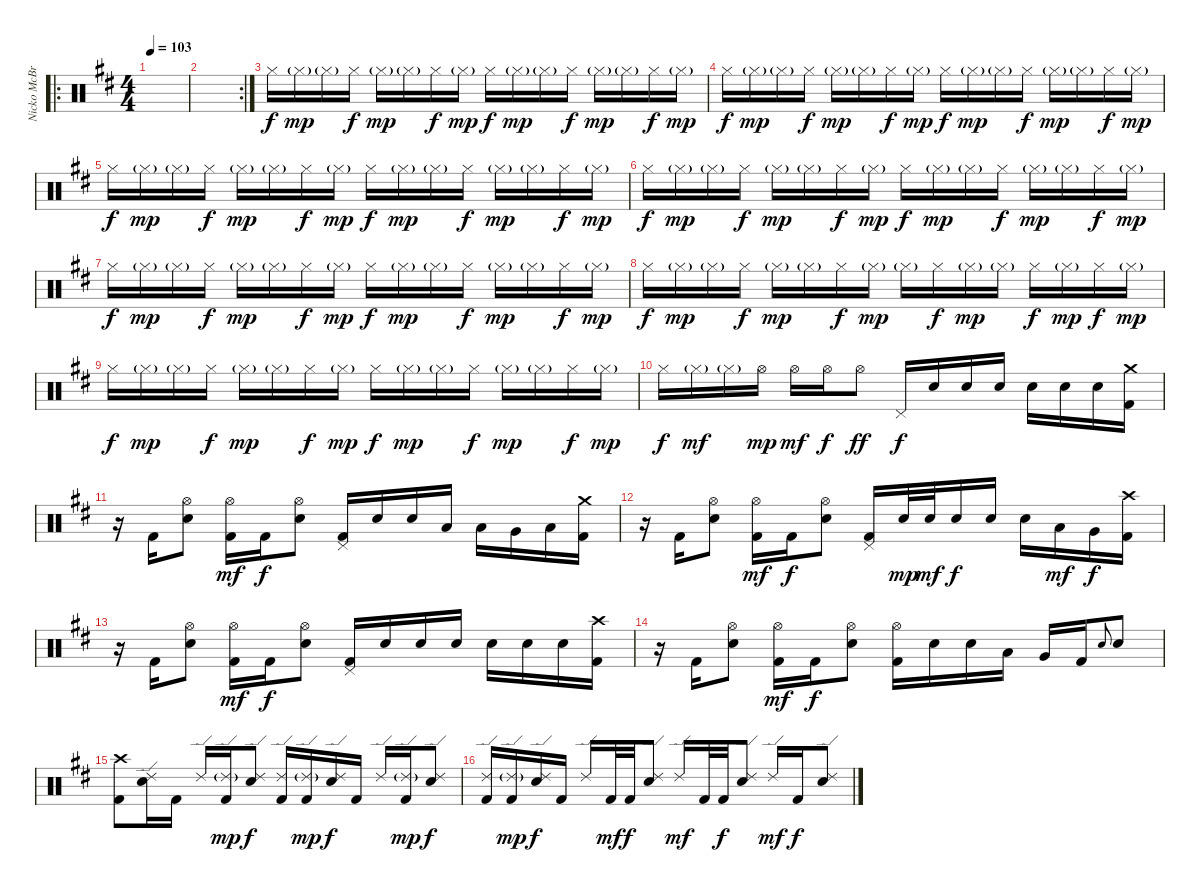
\track ("Nicko McBrain" "Nicko McBr") {instrument percussion}
\staff {score}
\articulation defaults
\ro
\ts (4 4)
\tempo 103
\clef neutral
\ks d
|
\rc 2
|
"Hi-Hat (closed)".16 "Hi-Hat (closed)"{g}.16{dy mp} "Hi-Hat (closed)"{g}.16 "Hi-Hat (closed)".16{dy f} "Hi-Hat (closed)"{g}.16{dy mp} "Hi-Hat (closed)"{g}.16 "Hi-Hat (closed)".16{dy f} "Hi-Hat (closed)"{g}.16{dy mp} "Hi-Hat (closed)".16{dy f} "Hi-Hat (closed)"{g}.16{dy mp} "Hi-Hat (closed)"{g}.16 "Hi-Hat (closed)".16{dy f} "Hi-Hat (closed)"{g}.16{dy mp} "Hi-Hat (closed)"{g}.16 "Hi-Hat (closed)".16{dy f} "Hi-Hat (closed)"{g}.16{dy mp} |
"Hi-Hat (closed)".16{dy f} "Hi-Hat (closed)"{g}.16{dy mp} "Hi-Hat (closed)"{g}.16 "Hi-Hat (closed)".16{dy f} "Hi-Hat (closed)"{g}.16{dy mp} "Hi-Hat (closed)"{g}.16 "Hi-Hat (closed)".16{dy f} "Hi-Hat (closed)"{g}.16{dy mp} "Hi-Hat (closed)".16{dy f} "Hi-Hat (closed)"{g}.16{dy mp} "Hi-Hat (closed)"{g}.16 "Hi-Hat (closed)".16{dy f} "Hi-Hat (closed)"{g}.16{dy mp} "Hi-Hat (closed)"{g}.16 "Hi-Hat (closed)".16{dy f} "Hi-Hat (closed)"{g}.16{dy mp} |
"Hi-Hat (closed)".16{dy f} "Hi-Hat (closed)"{g}.16{dy mp} "Hi-Hat (closed)"{g}.16 "Hi-Hat (closed)".16{dy f} "Hi-Hat (closed)"{g}.16{dy mp} "Hi-Hat (closed)"{g}.16 "Hi-Hat (closed)".16{dy f} "Hi-Hat (closed)"{g}.16{dy mp} "Hi-Hat (closed)".16{dy f} "Hi-Hat (closed)"{g}.16{dy mp} "Hi-Hat (closed)"{g}.16 "Hi-Hat (closed)".16{dy f} "Hi-Hat (closed)"{g}.16{dy mp} "Hi-Hat (closed)"{g}.16 "Hi-Hat (closed)".16{dy f} "Hi-Hat (closed)"{g}.16{dy mp} |
"Hi-Hat (closed)".16{dy f} "Hi-Hat (closed)"{g}.16{dy mp} "Hi-Hat (closed)"{g}.16 "Hi-Hat (closed)".16{dy f} "Hi-Hat (closed)"{g}.16{dy mp} "Hi-Hat (closed)"{g}.16 "Hi-Hat (closed)".16{dy f} "Hi-Hat (closed)"{g}.16{dy mp} "Hi-Hat (closed)".16{dy f} "Hi-Hat (closed)"{g}.16{dy mp} "Hi-Hat (closed)"{g}.16 "Hi-Hat (closed)".16{dy f} "Hi-Hat (closed)"{g}.16{dy mp} "Hi-Hat (closed)"{g}.16 "Hi-Hat (closed)".16{dy f} "Hi-Hat (closed)"{g}.16{dy mp} |
"Hi-Hat (closed)".16{dy f} "Hi-Hat (closed)"{g}.16{dy mp} "Hi-Hat (closed)"{g}.16 "Hi-Hat (closed)".16{dy f} "Hi-Hat (closed)"{g}.16{dy mp} "Hi-Hat (closed)"{g}.16 "Hi-Hat (closed)".16{dy f} "Hi-Hat (closed)"{g}.16{dy mp} "Hi-Hat (closed)".16{dy f} "Hi-Hat (closed)"{g}.16{dy mp} "Hi-Hat (closed)"{g}.16 "Hi-Hat (closed)".16{dy f} "Hi-Hat (closed)"{g}.16{dy mp} "Hi-Hat (closed)"{g}.16 "Hi-Hat (closed)".16{dy f} "Hi-Hat (closed)"{g}.16{dy mp} |
"Hi-Hat (closed)".16{dy f} "Hi-Hat (closed)"{g}.16{dy mp} "Hi-Hat (closed)"{g}.16 "Hi-Hat (closed)".16{dy f} "Hi-Hat (closed)"{g}.16{dy mp} "Hi-Hat (closed)"{g}.16 "Hi-Hat (closed)".16{dy f} "Hi-Hat (closed)"{g}.16{dy mp} "Hi-Hat (closed)"{g}.16 "Hi-Hat (closed)".16{dy f} "Hi-Hat (closed)"{g}.16{dy mp} "Hi-Hat (closed)"{g}.16 "Hi-Hat (closed)".16{dy f} "Hi-Hat (closed)"{g}.16{dy mp} "Hi-Hat (closed)".16{dy f} "Hi-Hat (closed)"{g}.16{dy mp} |
"Hi-Hat (closed)".16{dy f} "Hi-Hat (closed)"{g}.16{dy mp} "Hi-Hat (closed)"{g}.16 "Hi-Hat (closed)".16{dy f} "Hi-Hat (closed)"{g}.16{dy mp} "Hi-Hat (closed)"{g}.16 "Hi-Hat (closed)".16{dy f} "Hi-Hat (closed)"{g}.16{dy mp} "Hi-Hat (closed)".16{dy f} "Hi-Hat (closed)"{g}.16{dy mp} "Hi-Hat (closed)"{g}.16 "Hi-Hat (closed)".16{dy f} "Hi-Hat (closed)"{g}.16{dy mp} "Hi-Hat (closed)"{g}.16 "Hi-Hat (closed)".16{dy f} "Hi-Hat (closed)"{g}.16{dy mp} |
"Hi-Hat (closed)".16{dy f} "Hi-Hat (closed)"{g}.16{dy mf} "Hi-Hat (closed)"{g}.16 "Hi-Hat (open)".16{dy mp} "Hi-Hat (open)".16{dy mf} "Hi-Hat (open)".16{dy f} "Hi-Hat (open)".8{dy ff} "Pedal Hi-Hat (hit)".16{dy f} "Electric Snare (hit)".16 "Electric Snare (hit)".16 "Electric Snare (hit)".16 "Electric Snare (hit)".16 "Electric Snare (hit)".16 "Electric Snare (hit)".16 ("Crash medium (hit)" "Kick (hit) 2").16 |
r.16 "Kick (hit) 2".16 ("Hi-Hat (open)" "Electric Snare (hit)").8 ("Hi-Hat (open)" "Kick (hit) 2").16{dy mf} "Kick (hit) 2".16{dy f} ("Hi-Hat (open)" "Electric Snare (hit)").8 ("Pedal Hi-Hat (hit)" "Kick (hit) 2").16 "Electric Snare (hit)".16 "Electric Snare (hit)".16 "Low Tom (hit)".16 "Low Tom (hit)".16 "Very Low Tom (hit)".16 "Low Floor Tom (hit)".16 ("Crash medium (hit)" "Kick (hit) 2").16 |
r.16 "Kick (hit) 2".16 ("Hi-Hat (open)" "Electric Snare (hit)").8 ("Hi-Hat (open)" "Kick (hit) 2").16{dy mf} "Kick (hit) 2".16{dy f} ("Hi-Hat (open)" "Electric Snare (hit)").8 ("Pedal Hi-Hat (hit)" "Kick (hit) 2").16 "Electric Snare (hit)".32{dy mp} "Electric Snare (hit)".32{dy mf} "Electric Snare (hit)".16{dy f} "Electric Snare (hit)".16 "Electric Snare (hit)".16 "Low Tom (hit)".16{dy mf} "Very Low Tom (hit)".16{dy f} ("Crash high (hit)" "Kick (hit) 2").16 |
r.16 "Kick (hit) 2".16 ("Hi-Hat (open)" "Electric Snare (hit)").8 ("Hi-Hat (open)" "Kick (hit) 2").16{dy mf} "Kick (hit) 2".16{dy f} ("Hi-Hat (open)" "Electric Snare (hit)").8 ("Pedal Hi-Hat (hit)" "Kick (hit) 2").16 "Electric Snare (hit)".16 "Electric Snare (hit)".16 "Electric Snare (hit)".16 "Electric Snare (hit)".16 "Electric Snare (hit)".16 "Electric Snare (hit)".16 ("Crash high (hit)" "Kick (hit) 2").16 |
r.16 "Kick (hit) 2".16 ("Hi-Hat (open)" "Electric Snare (hit)").8 ("Hi-Hat (open)" "Kick (hit) 2").16{dy mf} "Kick (hit) 2".16{dy f} ("Hi-Hat (open)" "Electric Snare (hit)").8 ("Hi-Hat (open)" "Kick (hit) 2").16 "Electric Snare (hit)".16 "Electric Snare (hit)".16 "Low Tom (hit)".16 "Very Low Tom (hit)".16 "Kick (hit) 2".16 "Electric Snare (hit)".8{gr onbeat} "Electric Snare (hit)".8 |
("Crash high (hit)" "Kick (hit) 2").8 ("Ride (edge) 2" "Electric Snare (hit)").16 "Kick (hit) 2".16 "Ride (edge) 2".16 ("Ride (edge) 2"{g} "Kick (hit) 2").16{dy mp} ("Ride (edge) 2" "Electric Snare (hit)").8{dy f} ("Ride (edge) 2" "Kick (hit) 2").16 ("Ride (edge) 2"{g} "Kick (hit) 2").16{dy mp} ("Ride (edge) 2" "Electric Snare (hit)").16{dy f} "Kick (hit) 2".16 "Ride (edge) 2".16 ("Ride (edge) 2"{g} "Kick (hit) 2").16{dy mp} ("Ride (edge) 2" "Electric Snare (hit)").8{dy f} |
("Ride (edge) 2" "Kick (hit) 2").16 ("Ride (edge) 2"{g} "Kick (hit) 2").16{dy mp} ("Ride (edge) 2" "Electric Snare (hit)").16{dy f} "Kick (hit) 2".16 "Ride (edge) 2".16 "Kick (hit) 2".32{dy mf} "Kick (hit) 2".32{dy f} ("Ride (edge) 2" "Electric Snare (hit)").8 "Ride (edge) 2".16{dy mf} "Kick (hit) 2".32 "Kick (hit) 2".32{dy f} ("Ride (edge) 2" "Electric Snare (hit)").8 "Ride (edge) 2".16{dy mf} "Kick (hit) 2".16{dy f} ("Ride (edge) 2" "Electric Snare (hit)").8
